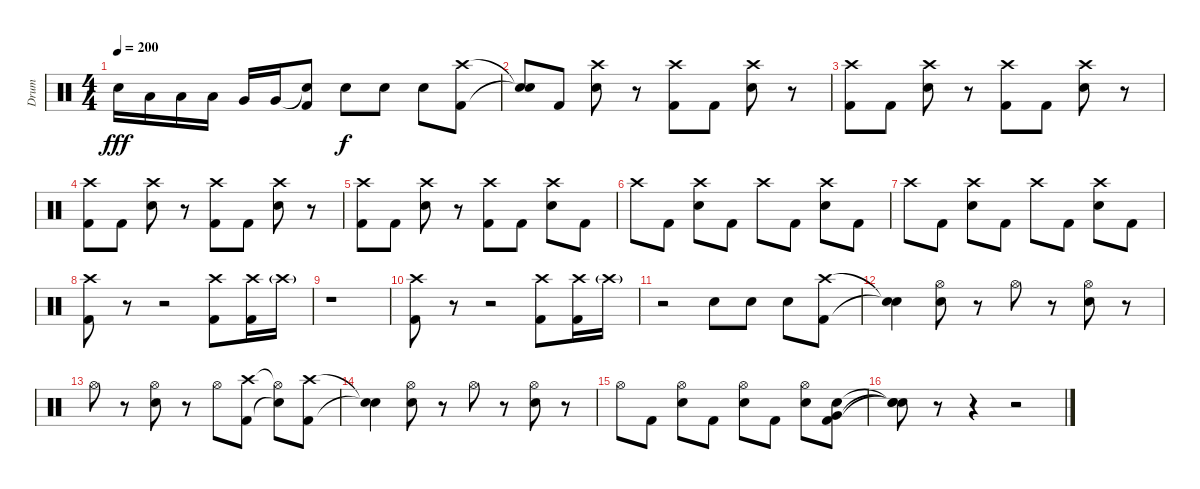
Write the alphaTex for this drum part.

\track ("Drum" "Drum") {instrument percussion}
\staff {score}
\articulation defaults
\ts (4 4)
\tempo 200
\clef neutral
\ks c "Electric Snare (hit)".16{dy fff} "Low Tom (hit)".16 "Low Tom (hit)".16 "Low Tom (hit)".16 "Very Low Tom (hit)".16 "Very Low Tom (hit)".16
("Snare (hit)"{t} "Kick (hit) 2").8 "Electric Snare (hit)".8{dy f} "Electric Snare (hit)".8 "Electric Snare (hit)".8 ("Crash high (hit)" "Kick (hit) 2").8 |
("Snare (hit)"{t} "Snare (hit)"{t}).8 "Kick (hit) 2".8 ("Crash high (hit)" "Electric Snare (hit)").8 r.8 ("Crash high (hit)" "Kick (hit) 2").8 "Kick (hit) 2".8 ("Crash high (hit)" "Electric Snare (hit)").8 r.8 |
("Crash high (hit)" "Kick (hit) 2").8 "Kick (hit) 2".8 ("Crash high (hit)" "Electric Snare (hit)").8 r.8 ("Crash high (hit)" "Kick (hit) 2").8 "Kick (hit) 2".8 ("Crash high (hit)" "Electric Snare (hit)").8 r.8 |
("Crash high (hit)" "Kick (hit) 2").8 "Kick (hit) 2".8 ("Crash high (hit)" "Electric Snare (hit)").8 r.8 ("Crash high (hit)" "Kick (hit) 2").8 "Kick (hit) 2".8 ("Crash high (hit)" "Electric Snare (hit)").8 r.8 |
("Crash high (hit)" "Kick (hit) 2").8 "Kick (hit) 2".8 ("Crash high (hit)" "Electric Snare (hit)").8 r.8 ("Crash high (hit)" "Kick (hit) 2").8 "Kick (hit) 2".8 ("Crash high (hit)" "Electric Snare (hit)").8 "Kick (hit) 2".8 |
"Crash high (hit)".8 "Kick (hit) 2".8 ("Crash high (hit)" "Electric Snare (hit)").8 "Kick (hit) 2".8 "Crash high (hit)".8 "Kick (hit) 2".8 ("Crash high (hit)" "Electric Snare (hit)").8 "Kick (hit) 2".8 |
"Crash high (hit)".8 "Kick (hit) 2".8 ("Crash high (hit)" "Electric Snare (hit)").8 "Kick (hit) 2".8 "Crash high (hit)".8 "Kick (hit) 2".8 ("Crash high (hit)" "Electric Snare (hit)").8 "Kick (hit) 2".8 |
("Crash high (hit)" "Kick (hit) 2").8 r.8 r.2 ("Crash high (hit)" "Kick (hit) 2").8 ("Crash high (hit)" "Kick (hit) 2").16 "Crash high (hit)"{g}.16 |
r.1 |
("Crash high (hit)" "Kick (hit) 2").8 r.8 r.2 ("Crash high (hit)" "Kick (hit) 2").8 ("Crash high (hit)" "Kick (hit) 2").16 "Crash high (hit)"{g}.16 |
r.2 "Electric Snare (hit)".8 "Electric Snare (hit)".8 "Electric Snare (hit)".8 ("Crash high (hit)" "Kick (hit) 2").8 |
("Snare (hit)"{t} "Snare (hit)"{t}).4 ("Hi-Hat (open)" "Electric Snare (hit)").8 r.8 "Hi-Hat (open)".8 r.8 ("Hi-Hat (open)" "Electric Snare (hit)").8 r.8 |
"Hi-Hat (open)".8 r.8 ("Hi-Hat (open)" "Electric Snare (hit)").8 r.8 "Hi-Hat (open)".8 ("Crash high (hit)" "Kick (hit) 2").8 ("Hi-Hat (open)"{t} "Snare (hit)"{t}).8 ("Crash high (hit)" "Kick (hit) 2").8 |
("Snare (hit)"{t} "Snare (hit)"{t}).4 ("Hi-Hat (open)" "Electric Snare (hit)").8 r.8 "Hi-Hat (open)".8 r.8 ("Hi-Hat (open)" "Electric Snare (hit)").8 r.8 |
"Hi-Hat (open)".8 "Kick (hit) 2".8 ("Hi-Hat (open)" "Electric Snare (hit)").8 "Kick (hit) 2".8 ("Hi-Hat (open)" "Electric Snare (hit)").8 "Kick (hit) 2".8 ("Hi-Hat (open)" "Electric Snare (hit)").8 ("Very Low Tom (hit)" "Electric Snare (hit)" "Kick (hit) 2").8 |
("Snare (hit)"{t} "Snare (hit)"{t} "Snare (hit)"{t}).8 r.8 r.4 r.2
